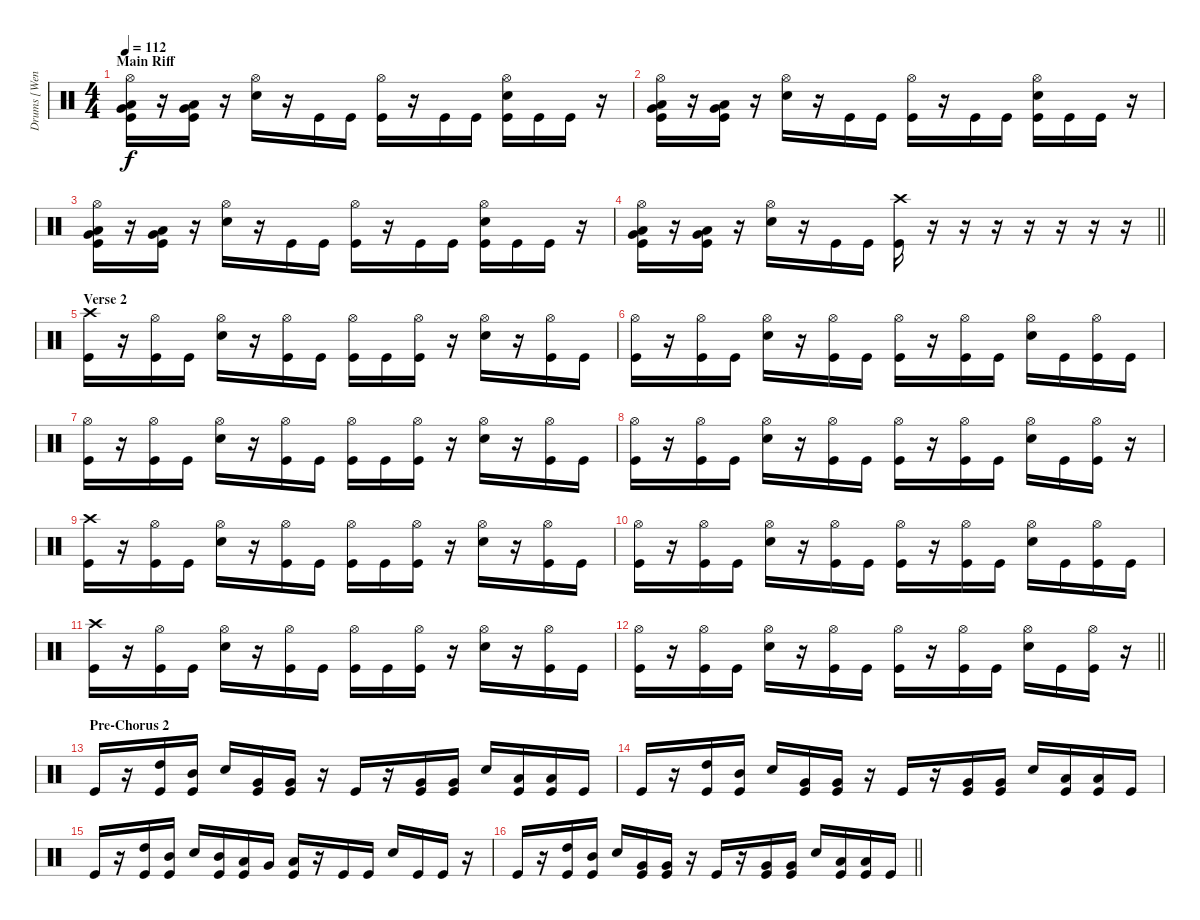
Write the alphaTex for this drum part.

\track ("Drums [Wengren]" "Drums [Wen") {instrument percussion}
\staff {score}
\articulation defaults
\ts (4 4)
\section ("" "Main Riff")
\tempo 112
\clef neutral
\ks c
("Hi-Hat (open)" "Very Low Tom (hit)" "Low Floor Tom (hit)" "Kick (hit)").16{dy f} r.16 ("Very Low Tom (hit)" "Low Floor Tom (hit)" "Kick (hit)").16 r.16 ("Hi-Hat (open)" "Electric Snare (hit)").16 r.16 "Kick (hit)".16 "Kick (hit)".16 ("Hi-Hat (open)" "Kick (hit)").16 r.16 "Kick (hit)".16 "Kick (hit)".16 ("Hi-Hat (open)" "Electric Snare (hit)" "Kick (hit)").16 "Kick (hit)".16 "Kick (hit)".16 r.16 |
("Hi-Hat (open)" "Very Low Tom (hit)" "Low Floor Tom (hit)" "Kick (hit)").16 r.16 ("Very Low Tom (hit)" "Low Floor Tom (hit)" "Kick (hit)").16 r.16 ("Hi-Hat (open)" "Electric Snare (hit)").16 r.16 "Kick (hit)".16 "Kick (hit)".16 ("Hi-Hat (open)" "Kick (hit)").16 r.16 "Kick (hit)".16 "Kick (hit)".16 ("Hi-Hat (open)" "Electric Snare (hit)" "Kick (hit)").16 "Kick (hit)".16 "Kick (hit)".16 r.16 |
("Hi-Hat (open)" "Very Low Tom (hit)" "Low Floor Tom (hit)" "Kick (hit)").16 r.16 ("Very Low Tom (hit)" "Low Floor Tom (hit)" "Kick (hit)").16 r.16 ("Hi-Hat (open)" "Electric Snare (hit)").16 r.16 "Kick (hit)".16 "Kick (hit)".16 ("Hi-Hat (open)" "Kick (hit)").16 r.16 "Kick (hit)".16 "Kick (hit)".16 ("Hi-Hat (open)" "Electric Snare (hit)" "Kick (hit)").16 "Kick (hit)".16 "Kick (hit)".16 r.16 |
\barLineRight lightlight
("Hi-Hat (open)" "Very Low Tom (hit)" "Low Floor Tom (hit)" "Kick (hit)").16 r.16 ("Very Low Tom (hit)" "Low Floor Tom (hit)" "Kick (hit)").16 r.16 ("Hi-Hat (open)" "Electric Snare (hit)").16 r.16 "Kick (hit)".16 "Kick (hit)".16 ("Crash high (hit)" "Kick (hit)").16 r.16 r.16 r.16 r.16 r.16 r.16 r.16 |
\section ("" "Verse 2")
("Crash high (hit)" "Kick (hit)").16 r.16 ("Hi-Hat (open)" "Kick (hit)").16 "Kick (hit)".16 ("Hi-Hat (open)" "Electric Snare (hit)").16 r.16 ("Hi-Hat (open)" "Kick (hit)").16 "Kick (hit)".16 ("Hi-Hat (open)" "Kick (hit)").16 "Kick (hit)".16 ("Hi-Hat (open)" "Kick (hit)").16 r.16 ("Hi-Hat (open)" "Electric Snare (hit)").16 r.16 ("Hi-Hat (open)" "Kick (hit)").16 "Kick (hit)".16 |
("Hi-Hat (open)" "Kick (hit)").16 r.16 ("Hi-Hat (open)" "Kick (hit)").16 "Kick (hit)".16 ("Hi-Hat (open)" "Electric Snare (hit)").16 r.16 ("Hi-Hat (open)" "Kick (hit)").16 "Kick (hit)".16 ("Hi-Hat (open)" "Kick (hit)").16 r.16 ("Hi-Hat (open)" "Kick (hit)").16 "Kick (hit)".16 ("Hi-Hat (open)" "Electric Snare (hit)").16 "Kick (hit)".16 ("Hi-Hat (open)" "Kick (hit)").16 "Kick (hit)".16 |
("Hi-Hat (open)" "Kick (hit)").16 r.16 ("Hi-Hat (open)" "Kick (hit)").16 "Kick (hit)".16 ("Hi-Hat (open)" "Electric Snare (hit)").16 r.16 ("Hi-Hat (open)" "Kick (hit)").16 "Kick (hit)".16 ("Hi-Hat (open)" "Kick (hit)").16 "Kick (hit)".16 ("Hi-Hat (open)" "Kick (hit)").16 r.16 ("Hi-Hat (open)" "Electric Snare (hit)").16 r.16 ("Hi-Hat (open)" "Kick (hit)").16 "Kick (hit)".16 |
("Hi-Hat (open)" "Kick (hit)").16 r.16 ("Hi-Hat (open)" "Kick (hit)").16 "Kick (hit)".16 ("Hi-Hat (open)" "Electric Snare (hit)").16 r.16 ("Hi-Hat (open)" "Kick (hit)").16 "Kick (hit)".16 ("Hi-Hat (open)" "Kick (hit)").16 r.16 ("Hi-Hat (open)" "Kick (hit)").16 "Kick (hit)".16 ("Hi-Hat (open)" "Electric Snare (hit)").16 "Kick (hit)".16 ("Hi-Hat (open)" "Kick (hit)").16 r.16 |
("Crash high (hit)" "Kick (hit)").16 r.16 ("Hi-Hat (open)" "Kick (hit)").16 "Kick (hit)".16 ("Hi-Hat (open)" "Electric Snare (hit)").16 r.16 ("Hi-Hat (open)" "Kick (hit)").16 "Kick (hit)".16 ("Hi-Hat (open)" "Kick (hit)").16 "Kick (hit)".16 ("Hi-Hat (open)" "Kick (hit)").16 r.16 ("Hi-Hat (open)" "Electric Snare (hit)").16 r.16 ("Hi-Hat (open)" "Kick (hit)").16 "Kick (hit)".16 |
("Hi-Hat (open)" "Kick (hit)").16 r.16 ("Hi-Hat (open)" "Kick (hit)").16 "Kick (hit)".16 ("Hi-Hat (open)" "Electric Snare (hit)").16 r.16 ("Hi-Hat (open)" "Kick (hit)").16 "Kick (hit)".16 ("Hi-Hat (open)" "Kick (hit)").16 r.16 ("Hi-Hat (open)" "Kick (hit)").16 "Kick (hit)".16 ("Hi-Hat (open)" "Electric Snare (hit)").16 "Kick (hit)".16 ("Hi-Hat (open)" "Kick (hit)").16 "Kick (hit)".16 |
("Crash high (hit)" "Kick (hit)").16 r.16 ("Hi-Hat (open)" "Kick (hit)").16 "Kick (hit)".16 ("Hi-Hat (open)" "Electric Snare (hit)").16 r.16 ("Hi-Hat (open)" "Kick (hit)").16 "Kick (hit)".16 ("Hi-Hat (open)" "Kick (hit)").16 "Kick (hit)".16 ("Hi-Hat (open)" "Kick (hit)").16 r.16 ("Hi-Hat (open)" "Electric Snare (hit)").16 r.16 ("Hi-Hat (open)" "Kick (hit)").16 "Kick (hit)".16 |
\barLineRight lightlight
("Hi-Hat (open)" "Kick (hit)").16 r.16 ("Hi-Hat (open)" "Kick (hit)").16 "Kick (hit)".16 ("Hi-Hat (open)" "Electric Snare (hit)").16 r.16 ("Hi-Hat (open)" "Kick (hit)").16 "Kick (hit)".16 ("Hi-Hat (open)" "Kick (hit)").16 r.16 ("Hi-Hat (open)" "Kick (hit)").16 "Kick (hit)".16 ("Hi-Hat (open)" "Electric Snare (hit)").16 "Kick (hit)".16 ("Hi-Hat (open)" "Kick (hit)").16 r.16 |
\section ("" "Pre-Chorus 2")
"Kick (hit)".16 r.16 ("High Tom (hit)" "Kick (hit)").16 ("Mid Tom (hit)" "Kick (hit)").16 "Electric Snare (hit)".16 ("Very Low Tom (hit)" "Kick (hit)").16 ("Very Low Tom (hit)" "Kick (hit)").16 r.16 "Kick (hit)".16 r.16 ("Very Low Tom (hit)" "Kick (hit)").16 ("Very Low Tom (hit)" "Kick (hit)").16 "Electric Snare (hit)".16 ("Low Floor Tom (hit)" "Kick (hit)").16 ("Low Floor Tom (hit)" "Kick (hit)").16 "Kick (hit)".16 |
"Kick (hit)".16 r.16 ("High Tom (hit)" "Kick (hit)").16 ("Mid Tom (hit)" "Kick (hit)").16 "Electric Snare (hit)".16 ("Very Low Tom (hit)" "Kick (hit)").16 ("Very Low Tom (hit)" "Kick (hit)").16 r.16 "Kick (hit)".16 r.16 ("Very Low Tom (hit)" "Kick (hit)").16 ("Very Low Tom (hit)" "Kick (hit)").16 "Electric Snare (hit)".16 ("Low Floor Tom (hit)" "Kick (hit)").16 ("Low Floor Tom (hit)" "Kick (hit)").16 "Kick (hit)".16 |
"Kick (hit)".16 r.16 ("High Tom (hit)" "Kick (hit)").16 ("Mid Tom (hit)" "Kick (hit)").16 "Electric Snare (hit)".16 ("Mid Tom (hit)" "Kick (hit)").16 ("Low Floor Tom (hit)" "Kick (hit)").16 "Very Low Tom (hit)".16 ("Low Floor Tom (hit)" "Kick (hit)").16 r.16 "Kick (hit)".16 "Kick (hit)".16 "Electric Snare (hit)".16 "Kick (hit)".16 "Kick (hit)".16 r.16 |
\barLineRight lightlight "Kick (hit)".16
r.16 ("High Tom (hit)" "Kick (hit)").16 ("Mid Tom (hit)" "Kick (hit)").16 "Electric Snare (hit)".16 ("Very Low Tom (hit)" "Kick (hit)").16 ("Very Low Tom (hit)" "Kick (hit)").16 r.16 "Kick (hit)".16 r.16 ("Very Low Tom (hit)" "Kick (hit)").16 ("Very Low Tom (hit)" "Kick (hit)").16 "Electric Snare (hit)".16 ("Low Floor Tom (hit)" "Kick (hit)").16 ("Low Floor Tom (hit)" "Kick (hit)").16 "Kick (hit)".16
